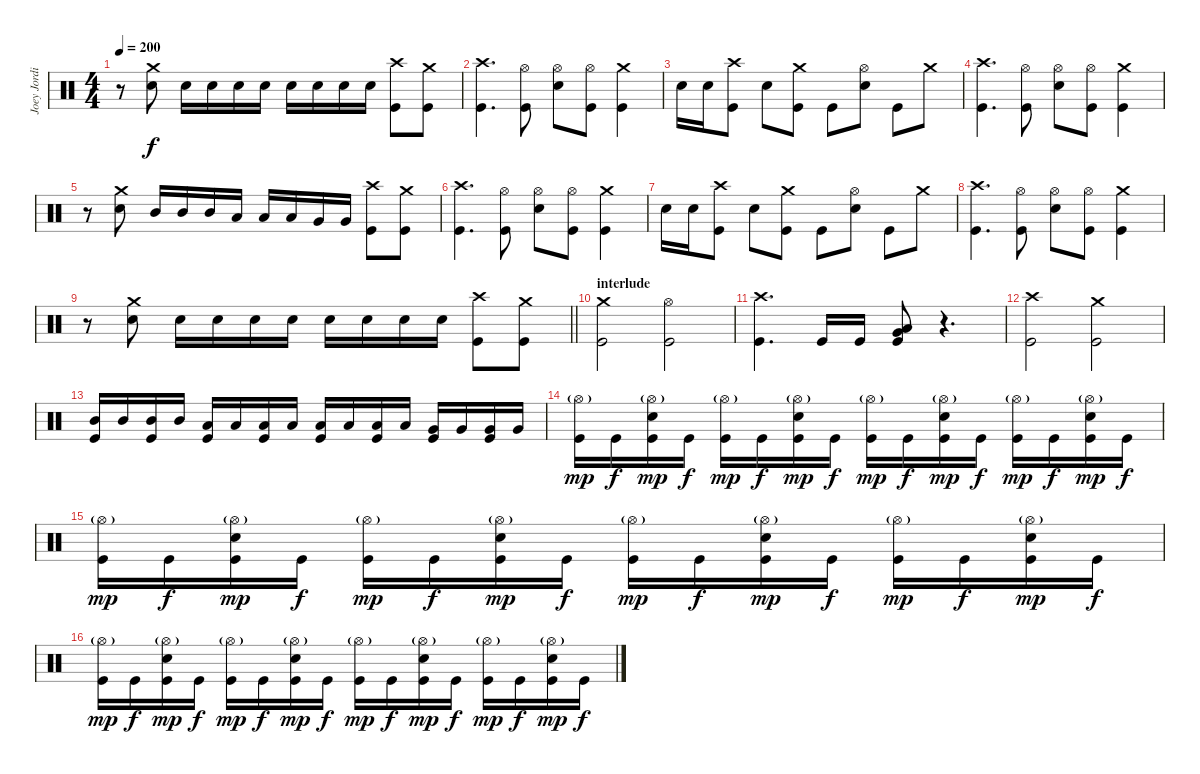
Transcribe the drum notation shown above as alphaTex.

\track ("Joey Jordison" "Joey Jordi") {instrument percussion}
\staff {score}
\articulation defaults
\ts (4 4)
\tempo 200
\clef neutral
\ks c
r.8{dy f} ("Crash medium (hit)" "Electric Snare (hit)").8 "Electric Snare (hit)".16 "Electric Snare (hit)".16 "Electric Snare (hit)".16 "Electric Snare (hit)".16 "Electric Snare (hit)".16 "Electric Snare (hit)".16 "Electric Snare (hit)".16 "Electric Snare (hit)".16 ("Crash high (hit)" "Kick (hit)").8 ("Crash medium (hit)" "Kick (hit)").8 |
("Crash high (hit)" "Kick (hit)").4{d} ("Hi-Hat (open)" "Kick (hit)").8 ("Hi-Hat (open)" "Electric Snare (hit)").8 ("Hi-Hat (open)" "Kick (hit)").8 ("Crash medium (hit)" "Kick (hit)").4 |
"Electric Snare (hit)".16 "Electric Snare (hit)".16 ("Crash high (hit)" "Kick (hit)").8 "Electric Snare (hit)".8 ("Crash medium (hit)" "Kick (hit)").8 "Kick (hit)".8 ("Hi-Hat (open)" "Electric Snare (hit)").8 "Kick (hit)".8 "Crash medium (hit)".8 |
("Crash high (hit)" "Kick (hit)").4{d} ("Hi-Hat (open)" "Kick (hit)").8 ("Hi-Hat (open)" "Electric Snare (hit)").8 ("Hi-Hat (open)" "Kick (hit)").8 ("Crash medium (hit)" "Kick (hit)").4 |
r.8 ("Crash medium (hit)" "Electric Snare (hit)").8 "Mid Tom (hit)".16 "Mid Tom (hit)".16 "Mid Tom (hit)".16 "Low Tom (hit)".16 "Low Tom (hit)".16 "Low Tom (hit)".16 "Very Low Tom (hit)".16 "Very Low Tom (hit)".16 ("Crash high (hit)" "Kick (hit)").8 ("Crash medium (hit)" "Kick (hit)").8 |
("Crash high (hit)" "Kick (hit)").4{d} ("Hi-Hat (open)" "Kick (hit)").8 ("Hi-Hat (open)" "Electric Snare (hit)").8 ("Hi-Hat (open)" "Kick (hit)").8 ("Crash medium (hit)" "Kick (hit)").4 |
"Electric Snare (hit)".16 "Electric Snare (hit)".16 ("Crash high (hit)" "Kick (hit)").8 "Electric Snare (hit)".8 ("Crash medium (hit)" "Kick (hit)").8 "Kick (hit)".8 ("Hi-Hat (open)" "Electric Snare (hit)").8 "Kick (hit)".8 "Crash medium (hit)".8 |
("Crash high (hit)" "Kick (hit)").4{d} ("Hi-Hat (open)" "Kick (hit)").8 ("Hi-Hat (open)" "Electric Snare (hit)").8 ("Hi-Hat (open)" "Kick (hit)").8 ("Crash medium (hit)" "Kick (hit)").4 |
\barLineRight lightlight
r.8 ("Crash medium (hit)" "Electric Snare (hit)").8 "Electric Snare (hit)".16 "Electric Snare (hit)".16 "Electric Snare (hit)".16 "Electric Snare (hit)".16 "Electric Snare (hit)".16 "Electric Snare (hit)".16 "Electric Snare (hit)".16 "Electric Snare (hit)".16 ("Crash high (hit)" "Kick (hit)").8 ("Crash medium (hit)" "Kick (hit)").8 |
\section ("" "interlude")
("Crash medium (hit)" "Kick (hit)").2 ("Hi-Hat (open)" "Kick (hit)").2 |
("Crash high (hit)" "Kick (hit)").4{d} "Kick (hit)".16 "Kick (hit)".16 ("Low Floor Tom (hit)" "Very Low Tom (hit)" "Kick (hit)").8 r.4{d} |
("Crash high (hit)" "Kick (hit)").2 ("Crash medium (hit)" "Kick (hit)").2 |
("Mid Tom (hit)" "Kick (hit)").16 "Mid Tom (hit)".16 ("Mid Tom (hit)" "Kick (hit)").16 "Mid Tom (hit)".16 ("Low Tom (hit)" "Kick (hit)").16 "Low Tom (hit)".16 ("Low Tom (hit)" "Kick (hit)").16 "Low Tom (hit)".16 ("Low Floor Tom (hit)" "Kick (hit)").16 "Low Floor Tom (hit)".16 ("Low Floor Tom (hit)" "Kick (hit)").16 "Low Floor Tom (hit)".16 ("Very Low Tom (hit)" "Kick (hit)").16 "Very Low Tom (hit)".16 ("Very Low Tom (hit)" "Kick (hit)").16 "Very Low Tom (hit)".16 |
("Hi-Hat (open)"{g} "Kick (hit)").16{dy mp} "Kick (hit)".16{dy f} ("Hi-Hat (open)"{g} "Electric Snare (hit)" "Kick (hit)").16{dy mp} "Kick (hit)".16{dy f} ("Hi-Hat (open)"{g} "Kick (hit)").16{dy mp} "Kick (hit)".16{dy f} ("Hi-Hat (open)"{g} "Electric Snare (hit)" "Kick (hit)").16{dy mp} "Kick (hit)".16{dy f} ("Hi-Hat (open)"{g} "Kick (hit)").16{dy mp} "Kick (hit)".16{dy f} ("Hi-Hat (open)"{g} "Electric Snare (hit)" "Kick (hit)").16{dy mp} "Kick (hit)".16{dy f} ("Hi-Hat (open)"{g} "Kick (hit)").16{dy mp} "Kick (hit)".16{dy f} ("Hi-Hat (open)"{g} "Electric Snare (hit)" "Kick (hit)").16{dy mp} "Kick (hit)".16{dy f} |
("Hi-Hat (open)"{g} "Kick (hit)").16{dy mp} "Kick (hit)".16{dy f} ("Hi-Hat (open)"{g} "Electric Snare (hit)" "Kick (hit)").16{dy mp} "Kick (hit)".16{dy f} ("Hi-Hat (open)"{g} "Kick (hit)").16{dy mp} "Kick (hit)".16{dy f} ("Hi-Hat (open)"{g} "Electric Snare (hit)" "Kick (hit)").16{dy mp} "Kick (hit)".16{dy f} ("Hi-Hat (open)"{g} "Kick (hit)").16{dy mp} "Kick (hit)".16{dy f} ("Hi-Hat (open)"{g} "Electric Snare (hit)" "Kick (hit)").16{dy mp} "Kick (hit)".16{dy f} ("Hi-Hat (open)"{g} "Kick (hit)").16{dy mp} "Kick (hit)".16{dy f} ("Hi-Hat (open)"{g} "Electric Snare (hit)" "Kick (hit)").16{dy mp} "Kick (hit)".16{dy f} |
("Hi-Hat (open)"{g} "Kick (hit)").16{dy mp} "Kick (hit)".16{dy f} ("Hi-Hat (open)"{g} "Electric Snare (hit)" "Kick (hit)").16{dy mp} "Kick (hit)".16{dy f} ("Hi-Hat (open)"{g} "Kick (hit)").16{dy mp} "Kick (hit)".16{dy f} ("Hi-Hat (open)"{g} "Electric Snare (hit)" "Kick (hit)").16{dy mp} "Kick (hit)".16{dy f} ("Hi-Hat (open)"{g} "Kick (hit)").16{dy mp} "Kick (hit)".16{dy f} ("Hi-Hat (open)"{g} "Electric Snare (hit)" "Kick (hit)").16{dy mp} "Kick (hit)".16{dy f} ("Hi-Hat (open)"{g} "Kick (hit)").16{dy mp} "Kick (hit)".16{dy f} ("Hi-Hat (open)"{g} "Electric Snare (hit)" "Kick (hit)").16{dy mp} "Kick (hit)".16{dy f}
